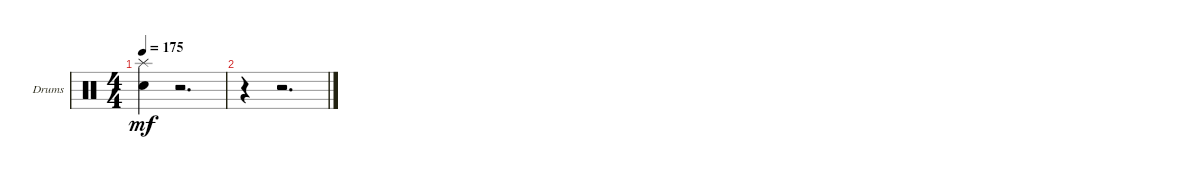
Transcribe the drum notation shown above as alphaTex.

\bracketExtendMode groupsimilarinstruments
\firstSystemTrackNameOrientation horizontal
\otherSystemsTrackNameOrientation horizontal
\track ("Drumkit" "Drums") {instrument percussion}
\staff {score}
\articulation defaults
\ts (4 4)
\tempo 175
\clef neutral
\ks c
("Snare (hit) 2" "Splash (hit)").4{dy mf} r.2{d} |
r.4 r.2{d}
